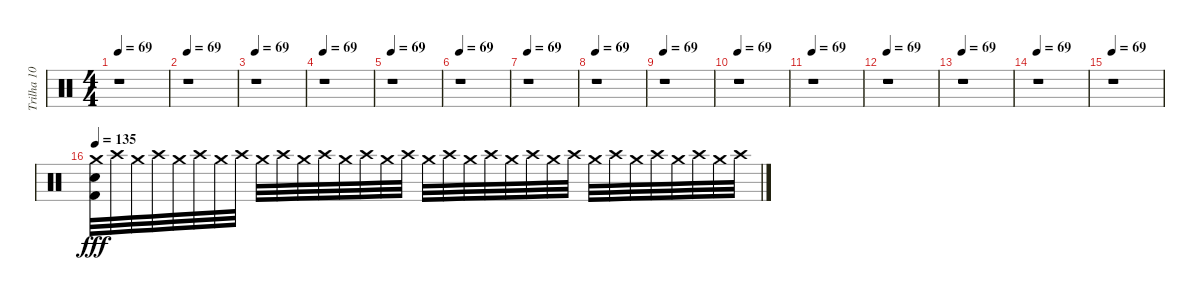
\track ("Trilha 10" "Trilha 10") {instrument percussion}
\staff {score}
\articulation defaults
\ts (4 4)
\tempo 69
\clef neutral
\ks c
r.1{dy fff} |
\tempo 69
r.1 |
\tempo 69
r.1 |
\tempo 69
r.1 |
\tempo 69
r.1 |
\tempo 69
r.1 |
\tempo 69
r.1 |
\tempo 69
r.1 |
\tempo 69
r.1 |
\tempo 69
r.1 |
\tempo 69
r.1 |
\tempo 69
r.1 |
\tempo 69
r.1 |
\tempo 69
r.1 |
\tempo 69
r.1 |
\tempo 135
("Crash medium (hit)" "Electric Snare (hit)" "Kick (hit) 2").32 "Crash high (hit)".32 "Crash medium (hit)".32 "Crash high (hit)".32 "Crash medium (hit)".32 "Crash high (hit)".32 "Crash medium (hit)".32 "Crash high (hit)".32 "Crash medium (hit)".32 "Crash high (hit)".32 "Crash medium (hit)".32 "Crash high (hit)".32 "Crash medium (hit)".32 "Crash high (hit)".32 "Crash medium (hit)".32 "Crash high (hit)".32 "Crash medium (hit)".32 "Crash high (hit)".32 "Crash medium (hit)".32 "Crash high (hit)".32 "Crash medium (hit)".32 "Crash high (hit)".32 "Crash medium (hit)".32 "Crash high (hit)".32 "Crash medium (hit)".32 "Crash high (hit)".32 "Crash medium (hit)".32 "Crash high (hit)".32 "Crash medium (hit)".32 "Crash high (hit)".32 "Crash medium (hit)".32 "Crash high (hit)".32
